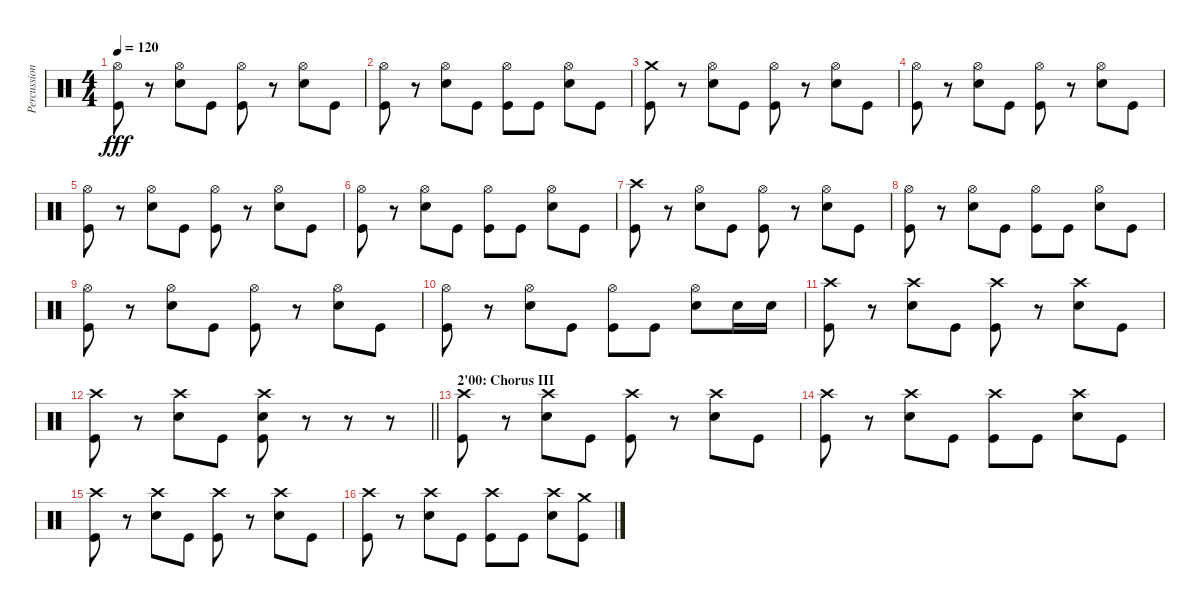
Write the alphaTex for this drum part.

\track ("Percussions" "Percussion") {instrument percussion}
\staff {score}
\articulation defaults
\ts (4 4)
\tempo 120
\clef neutral
\ks c
("Hi-Hat (open)" "Kick (hit)").8{dy fff} r.8 ("Hi-Hat (open)" "Snare (hit) 2").8 "Kick (hit)".8 ("Hi-Hat (open)" "Kick (hit)").8 r.8 ("Hi-Hat (open)" "Snare (hit) 2").8 "Kick (hit)".8 |
("Hi-Hat (open)" "Kick (hit)").8 r.8 ("Hi-Hat (open)" "Snare (hit) 2").8 "Kick (hit)".8 ("Hi-Hat (open)" "Kick (hit)").8 "Kick (hit)".8 ("Hi-Hat (open)" "Snare (hit) 2").8 "Kick (hit)".8 |
("Crash medium (hit)" "Kick (hit)").8 r.8 ("Hi-Hat (open)" "Snare (hit) 2").8 "Kick (hit)".8 ("Hi-Hat (open)" "Kick (hit)").8 r.8 ("Hi-Hat (open)" "Snare (hit) 2").8 "Kick (hit)".8 |
("Hi-Hat (open)" "Kick (hit)").8 r.8 ("Hi-Hat (open)" "Snare (hit) 2").8 "Kick (hit)".8 ("Hi-Hat (open)" "Kick (hit)").8 r.8 ("Hi-Hat (open)" "Snare (hit) 2").8 "Kick (hit)".8 |
("Hi-Hat (open)" "Kick (hit)").8 r.8 ("Hi-Hat (open)" "Snare (hit) 2").8 "Kick (hit)".8 ("Hi-Hat (open)" "Kick (hit)").8 r.8 ("Hi-Hat (open)" "Snare (hit) 2").8 "Kick (hit)".8 |
("Hi-Hat (open)" "Kick (hit)").8 r.8 ("Hi-Hat (open)" "Snare (hit) 2").8 "Kick (hit)".8 ("Hi-Hat (open)" "Kick (hit)").8 "Kick (hit)".8 ("Hi-Hat (open)" "Snare (hit) 2").8 "Kick (hit)".8 |
("Crash high (hit)" "Kick (hit)").8 r.8 ("Hi-Hat (open)" "Snare (hit) 2").8 "Kick (hit)".8 ("Hi-Hat (open)" "Kick (hit)").8 r.8 ("Hi-Hat (open)" "Snare (hit) 2").8 "Kick (hit)".8 |
("Hi-Hat (open)" "Kick (hit)").8 r.8 ("Hi-Hat (open)" "Snare (hit) 2").8 "Kick (hit)".8 ("Hi-Hat (open)" "Kick (hit)").8 "Kick (hit)".8 ("Hi-Hat (open)" "Snare (hit) 2").8 "Kick (hit)".8 |
("Hi-Hat (open)" "Kick (hit)").8 r.8 ("Hi-Hat (open)" "Snare (hit) 2").8 "Kick (hit)".8 ("Hi-Hat (open)" "Kick (hit)").8 r.8 ("Hi-Hat (open)" "Snare (hit) 2").8 "Kick (hit)".8 |
("Hi-Hat (open)" "Kick (hit)").8 r.8 ("Hi-Hat (open)" "Snare (hit) 2").8 "Kick (hit)".8 ("Hi-Hat (open)" "Kick (hit)").8 "Kick (hit)".8 ("Hi-Hat (open)" "Snare (hit) 2").8 "Snare (hit) 2".16 "Snare (hit) 2".16 |
("Crash high (hit)" "Kick (hit)").8 r.8 ("Crash high (hit)" "Snare (hit) 2").8 "Kick (hit)".8 ("Crash high (hit)" "Kick (hit)").8 r.8 ("Crash high (hit)" "Snare (hit) 2").8 "Kick (hit)".8 |
\barLineRight lightlight
("Crash high (hit)" "Kick (hit)").8 r.8 ("Crash high (hit)" "Snare (hit) 2").8 "Kick (hit)".8 ("Crash high (hit)" "Snare (hit) 2" "Kick (hit)").8 r.8 r.8 r.8 |
\section ("" "2'00: Chorus III")
("Crash high (hit)" "Kick (hit)").8 r.8 ("Crash high (hit)" "Snare (hit) 2").8 "Kick (hit)".8 ("Crash high (hit)" "Kick (hit)").8 r.8 ("Crash high (hit)" "Snare (hit) 2").8 "Kick (hit)".8 |
("Crash high (hit)" "Kick (hit)").8 r.8 ("Crash high (hit)" "Snare (hit) 2").8 "Kick (hit)".8 ("Crash high (hit)" "Kick (hit)").8 "Kick (hit)".8 ("Crash high (hit)" "Snare (hit) 2").8 "Kick (hit)".8 |
("Crash high (hit)" "Kick (hit)").8 r.8 ("Crash high (hit)" "Snare (hit) 2").8 "Kick (hit)".8 ("Crash high (hit)" "Kick (hit)").8 r.8 ("Crash high (hit)" "Snare (hit) 2").8 "Kick (hit)".8 |
("Crash high (hit)" "Kick (hit)").8 r.8 ("Crash high (hit)" "Snare (hit) 2").8 "Kick (hit)".8 ("Crash high (hit)" "Kick (hit)").8 "Kick (hit)".8 ("Crash high (hit)" "Snare (hit) 2").8 ("Crash medium (hit)" "Kick (hit)").8
